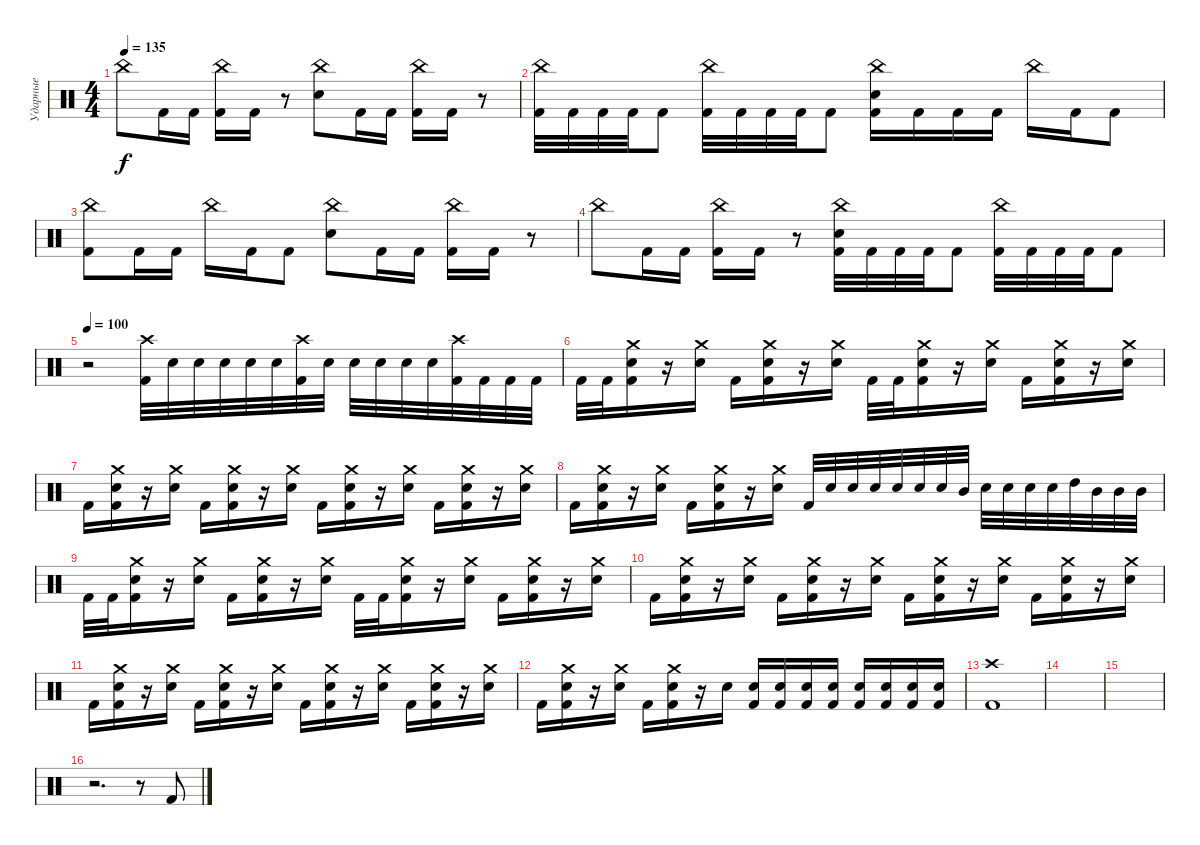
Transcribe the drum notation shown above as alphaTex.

\track ("Ударные" "Ударные") {instrument percussion}
\staff
\articulation defaults
\ts (4 4)
\tempo 135
\clef neutral
\ks c "China (hit)".8{dy f} "Kick (hit) 2".16 "Kick (hit) 2".16
("China (hit)" "Kick (hit) 2").16 "Kick (hit) 2".16 r.8 ("China (hit)" "Electric Snare (hit)").8 "Kick (hit) 2".16 "Kick (hit) 2".16 ("China (hit)" "Kick (hit) 2").16 "Kick (hit) 2".16 r.8 |
("China (hit)" "Kick (hit) 2").32 "Kick (hit) 2".32 "Kick (hit) 2".32 "Kick (hit) 2".32 "Kick (hit) 2".8 ("China (hit)" "Kick (hit) 2").32 "Kick (hit) 2".32 "Kick (hit) 2".32 "Kick (hit) 2".32 "Kick (hit) 2".8 ("China (hit)" "Electric Snare (hit)" "Kick (hit) 2").16 "Kick (hit) 2".16 "Kick (hit) 2".16 "Kick (hit) 2".16 "China (hit)".16 "Kick (hit) 2".16 "Kick (hit) 2".8 |
("China (hit)" "Kick (hit) 2").8 "Kick (hit) 2".16 "Kick (hit) 2".16 "China (hit)".16 "Kick (hit) 2".16 "Kick (hit) 2".8 ("China (hit)" "Electric Snare (hit)").8 "Kick (hit) 2".16 "Kick (hit) 2".16 ("China (hit)" "Kick (hit) 2").16 "Kick (hit) 2".16 r.8 |
"China (hit)".8 "Kick (hit) 2".16 "Kick (hit) 2".16 ("China (hit)" "Kick (hit) 2").16 "Kick (hit) 2".16 r.8 ("China (hit)" "Electric Snare (hit)" "Kick (hit) 2").32 "Kick (hit) 2".32 "Kick (hit) 2".32 "Kick (hit) 2".32 "Kick (hit) 2".8 ("China (hit)" "Kick (hit) 2").32 "Kick (hit) 2".32 "Kick (hit) 2".32 "Kick (hit) 2".32 "Kick (hit) 2".8 |
\tempo 100
r.2 ("Crash high (hit)" "Kick (hit) 2").32 "Electric Snare (hit)".32 "Electric Snare (hit)".32 "Electric Snare (hit)".32 "Electric Snare (hit)".32 "Electric Snare (hit)".32 ("Crash high (hit)" "Kick (hit) 2").32 "Electric Snare (hit)".32 "Electric Snare (hit)".32 "Electric Snare (hit)".32 "Electric Snare (hit)".32 "Electric Snare (hit)".32 ("Crash high (hit)" "Kick (hit) 2").32 "Kick (hit) 2".32 "Kick (hit) 2".32 "Kick (hit) 2".32 |
"Kick (hit) 2".32 "Kick (hit) 2".32 ("Crash medium (hit)" "Electric Snare (hit)" "Kick (hit) 2").16 r.16 ("Crash medium (hit)" "Electric Snare (hit)").16 "Kick (hit) 2".16 ("Crash medium (hit)" "Electric Snare (hit)" "Kick (hit) 2").16 r.16 ("Crash medium (hit)" "Electric Snare (hit)").16 "Kick (hit) 2".32 "Kick (hit) 2".32 ("Crash medium (hit)" "Electric Snare (hit)" "Kick (hit) 2").16 r.16 ("Crash medium (hit)" "Electric Snare (hit)").16 "Kick (hit) 2".16 ("Crash medium (hit)" "Electric Snare (hit)" "Kick (hit) 2").16 r.16 ("Crash medium (hit)" "Electric Snare (hit)").16 |
"Kick (hit) 2".16 ("Crash medium (hit)" "Electric Snare (hit)" "Kick (hit) 2").16 r.16 ("Crash medium (hit)" "Electric Snare (hit)").16 "Kick (hit) 2".16 ("Crash medium (hit)" "Electric Snare (hit)" "Kick (hit) 2").16 r.16 ("Crash medium (hit)" "Electric Snare (hit)").16 "Kick (hit) 2".16 ("Crash medium (hit)" "Electric Snare (hit)" "Kick (hit) 2").16 r.16 ("Crash medium (hit)" "Electric Snare (hit)").16 "Kick (hit) 2".16 ("Crash medium (hit)" "Electric Snare (hit)" "Kick (hit) 2").16 r.16 ("Crash medium (hit)" "Electric Snare (hit)").16 |
"Kick (hit) 2".16 ("Crash medium (hit)" "Electric Snare (hit)" "Kick (hit) 2").16 r.16 ("Crash medium (hit)" "Electric Snare (hit)").16 "Kick (hit) 2".16 ("Crash medium (hit)" "Electric Snare (hit)" "Kick (hit) 2").16 r.16 ("Crash medium (hit)" "Electric Snare (hit)").16 "Kick (hit) 2".32 "Electric Snare (hit)".32 "Electric Snare (hit)".32 "Electric Snare (hit)".32 "Electric Snare (hit)".32 "Electric Snare (hit)".32 "Electric Snare (hit)".32 "Mid Tom (hit)".32 "Electric Snare (hit)".32 "Electric Snare (hit)".32 "Electric Snare (hit)".32 "Electric Snare (hit)".32 "High Tom (hit)".32 "Mid Tom (hit)".32 "Mid Tom (hit)".32 "Mid Tom (hit)".32 |
"Kick (hit) 2".32 "Kick (hit) 2".32 ("Crash medium (hit)" "Electric Snare (hit)" "Kick (hit) 2").16 r.16 ("Crash medium (hit)" "Electric Snare (hit)").16 "Kick (hit) 2".16 ("Crash medium (hit)" "Electric Snare (hit)" "Kick (hit) 2").16 r.16 ("Crash medium (hit)" "Electric Snare (hit)").16 "Kick (hit) 2".32 "Kick (hit) 2".32 ("Crash medium (hit)" "Electric Snare (hit)" "Kick (hit) 2").16 r.16 ("Crash medium (hit)" "Electric Snare (hit)").16 "Kick (hit) 2".16 ("Crash medium (hit)" "Electric Snare (hit)" "Kick (hit) 2").16 r.16 ("Crash medium (hit)" "Electric Snare (hit)").16 |
"Kick (hit) 2".16 ("Crash medium (hit)" "Electric Snare (hit)" "Kick (hit) 2").16 r.16 ("Crash medium (hit)" "Electric Snare (hit)").16 "Kick (hit) 2".16 ("Crash medium (hit)" "Electric Snare (hit)" "Kick (hit) 2").16 r.16 ("Crash medium (hit)" "Electric Snare (hit)").16 "Kick (hit) 2".16 ("Crash medium (hit)" "Electric Snare (hit)" "Kick (hit) 2").16 r.16 ("Crash medium (hit)" "Electric Snare (hit)").16 "Kick (hit) 2".16 ("Crash medium (hit)" "Electric Snare (hit)" "Kick (hit) 2").16 r.16 ("Crash medium (hit)" "Electric Snare (hit)").16 |
"Kick (hit) 2".16 ("Crash medium (hit)" "Electric Snare (hit)" "Kick (hit) 2").16 r.16 ("Crash medium (hit)" "Electric Snare (hit)").16 "Kick (hit) 2".16 ("Crash medium (hit)" "Electric Snare (hit)" "Kick (hit) 2").16 r.16 ("Crash medium (hit)" "Electric Snare (hit)").16 "Kick (hit) 2".16 ("Crash medium (hit)" "Electric Snare (hit)" "Kick (hit) 2").16 r.16 ("Crash medium (hit)" "Electric Snare (hit)").16 "Kick (hit) 2".16 ("Crash medium (hit)" "Electric Snare (hit)" "Kick (hit) 2").16 r.16 ("Crash medium (hit)" "Electric Snare (hit)").16 |
"Kick (hit) 2".16 ("Crash medium (hit)" "Electric Snare (hit)" "Kick (hit) 2").16 r.16 ("Crash medium (hit)" "Electric Snare (hit)").16 "Kick (hit) 2".16 ("Crash medium (hit)" "Electric Snare (hit)" "Kick (hit) 2").16 r.16 "Electric Snare (hit)".16 ("Electric Snare (hit)" "Kick (hit) 2").16 ("Electric Snare (hit)" "Kick (hit) 2").16 ("Electric Snare (hit)" "Kick (hit) 2").16 ("Electric Snare (hit)" "Kick (hit) 2").16 ("Electric Snare (hit)" "Kick (hit) 2").16 ("Electric Snare (hit)" "Kick (hit) 2").16 ("Electric Snare (hit)" "Kick (hit) 2").16 ("Electric Snare (hit)" "Kick (hit) 2").16 |
("Crash high (hit)" "Kick (hit) 2").1 |
|
|
r.2{d} r.8 "Kick (hit) 2".8
